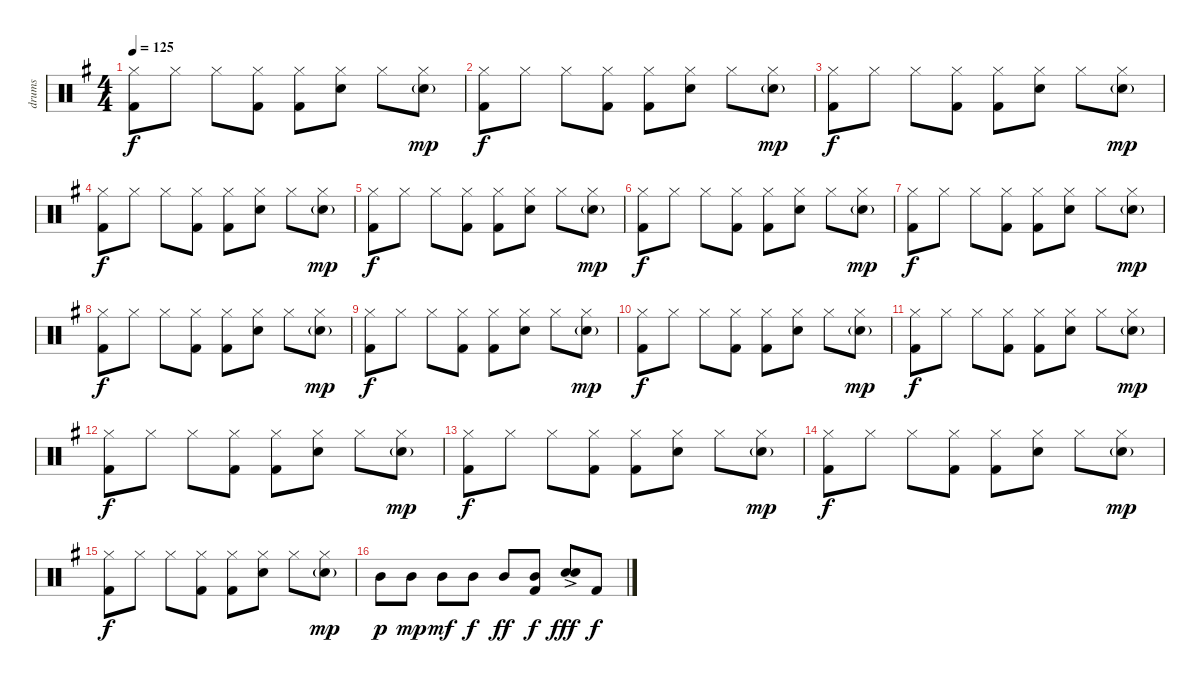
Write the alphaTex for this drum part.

\track ("drums" "drums") {instrument percussion}
\staff {score}
\articulation defaults
\ts (4 4)
\tempo 125
\clef neutral
\ks eminor
("Hi-Hat (closed)" "Kick (hit) 2").8{dy f} "Hi-Hat (closed)".8 "Hi-Hat (closed)".8 ("Hi-Hat (closed)" "Kick (hit) 2").8 ("Hi-Hat (closed)" "Kick (hit) 2").8 ("Hi-Hat (closed)" "Snare (hit) 2").8 "Hi-Hat (closed)".8 ("Hi-Hat (closed)" "Snare (hit) 2"{g}).8{dy mp} |
("Hi-Hat (closed)" "Kick (hit) 2").8{dy f} "Hi-Hat (closed)".8 "Hi-Hat (closed)".8 ("Hi-Hat (closed)" "Kick (hit) 2").8 ("Hi-Hat (closed)" "Kick (hit) 2").8 ("Hi-Hat (closed)" "Snare (hit) 2").8 "Hi-Hat (closed)".8 ("Hi-Hat (closed)" "Snare (hit) 2"{g}).8{dy mp} |
("Hi-Hat (closed)" "Kick (hit) 2").8{dy f} "Hi-Hat (closed)".8 "Hi-Hat (closed)".8 ("Hi-Hat (closed)" "Kick (hit) 2").8 ("Hi-Hat (closed)" "Kick (hit) 2").8 ("Hi-Hat (closed)" "Snare (hit) 2").8 "Hi-Hat (closed)".8 ("Hi-Hat (closed)" "Snare (hit) 2"{g}).8{dy mp} |
("Hi-Hat (closed)" "Kick (hit) 2").8{dy f} "Hi-Hat (closed)".8 "Hi-Hat (closed)".8 ("Hi-Hat (closed)" "Kick (hit) 2").8 ("Hi-Hat (closed)" "Kick (hit) 2").8 ("Hi-Hat (closed)" "Snare (hit) 2").8 "Hi-Hat (closed)".8 ("Hi-Hat (closed)" "Snare (hit) 2"{g}).8{dy mp} |
("Hi-Hat (closed)" "Kick (hit) 2").8{dy f} "Hi-Hat (closed)".8 "Hi-Hat (closed)".8 ("Hi-Hat (closed)" "Kick (hit) 2").8 ("Hi-Hat (closed)" "Kick (hit) 2").8 ("Hi-Hat (closed)" "Snare (hit) 2").8 "Hi-Hat (closed)".8 ("Hi-Hat (closed)" "Snare (hit) 2"{g}).8{dy mp} |
("Hi-Hat (closed)" "Kick (hit) 2").8{dy f} "Hi-Hat (closed)".8 "Hi-Hat (closed)".8 ("Hi-Hat (closed)" "Kick (hit) 2").8 ("Hi-Hat (closed)" "Kick (hit) 2").8 ("Hi-Hat (closed)" "Snare (hit) 2").8 "Hi-Hat (closed)".8 ("Hi-Hat (closed)" "Snare (hit) 2"{g}).8{dy mp} |
("Hi-Hat (closed)" "Kick (hit) 2").8{dy f} "Hi-Hat (closed)".8 "Hi-Hat (closed)".8 ("Hi-Hat (closed)" "Kick (hit) 2").8 ("Hi-Hat (closed)" "Kick (hit) 2").8 ("Hi-Hat (closed)" "Snare (hit) 2").8 "Hi-Hat (closed)".8 ("Hi-Hat (closed)" "Snare (hit) 2"{g}).8{dy mp} |
("Hi-Hat (closed)" "Kick (hit) 2").8{dy f} "Hi-Hat (closed)".8 "Hi-Hat (closed)".8 ("Hi-Hat (closed)" "Kick (hit) 2").8 ("Hi-Hat (closed)" "Kick (hit) 2").8 ("Hi-Hat (closed)" "Snare (hit) 2").8 "Hi-Hat (closed)".8 ("Hi-Hat (closed)" "Snare (hit) 2"{g}).8{dy mp} |
("Hi-Hat (closed)" "Kick (hit) 2").8{dy f} "Hi-Hat (closed)".8 "Hi-Hat (closed)".8 ("Hi-Hat (closed)" "Kick (hit) 2").8 ("Hi-Hat (closed)" "Kick (hit) 2").8 ("Hi-Hat (closed)" "Snare (hit) 2").8 "Hi-Hat (closed)".8 ("Hi-Hat (closed)" "Snare (hit) 2"{g}).8{dy mp} |
("Hi-Hat (closed)" "Kick (hit) 2").8{dy f} "Hi-Hat (closed)".8 "Hi-Hat (closed)".8 ("Hi-Hat (closed)" "Kick (hit) 2").8 ("Hi-Hat (closed)" "Kick (hit) 2").8 ("Hi-Hat (closed)" "Snare (hit) 2").8 "Hi-Hat (closed)".8 ("Hi-Hat (closed)" "Snare (hit) 2"{g}).8{dy mp} |
("Hi-Hat (closed)" "Kick (hit) 2").8{dy f} "Hi-Hat (closed)".8 "Hi-Hat (closed)".8 ("Hi-Hat (closed)" "Kick (hit) 2").8 ("Hi-Hat (closed)" "Kick (hit) 2").8 ("Hi-Hat (closed)" "Snare (hit) 2").8 "Hi-Hat (closed)".8 ("Hi-Hat (closed)" "Snare (hit) 2"{g}).8{dy mp} |
("Hi-Hat (closed)" "Kick (hit) 2").8{dy f} "Hi-Hat (closed)".8 "Hi-Hat (closed)".8 ("Hi-Hat (closed)" "Kick (hit) 2").8 ("Hi-Hat (closed)" "Kick (hit) 2").8 ("Hi-Hat (closed)" "Snare (hit) 2").8 "Hi-Hat (closed)".8 ("Hi-Hat (closed)" "Snare (hit) 2"{g}).8{dy mp} |
("Hi-Hat (closed)" "Kick (hit) 2").8{dy f} "Hi-Hat (closed)".8 "Hi-Hat (closed)".8 ("Hi-Hat (closed)" "Kick (hit) 2").8 ("Hi-Hat (closed)" "Kick (hit) 2").8 ("Hi-Hat (closed)" "Snare (hit) 2").8 "Hi-Hat (closed)".8 ("Hi-Hat (closed)" "Snare (hit) 2"{g}).8{dy mp} |
("Hi-Hat (closed)" "Kick (hit) 2").8{dy f} "Hi-Hat (closed)".8 "Hi-Hat (closed)".8 ("Hi-Hat (closed)" "Kick (hit) 2").8 ("Hi-Hat (closed)" "Kick (hit) 2").8 ("Hi-Hat (closed)" "Snare (hit) 2").8 "Hi-Hat (closed)".8 ("Hi-Hat (closed)" "Snare (hit) 2"{g}).8{dy mp} |
("Hi-Hat (closed)" "Kick (hit) 2").8{dy f} "Hi-Hat (closed)".8 "Hi-Hat (closed)".8 ("Hi-Hat (closed)" "Kick (hit) 2").8 ("Hi-Hat (closed)" "Kick (hit) 2").8 ("Hi-Hat (closed)" "Snare (hit) 2").8 "Hi-Hat (closed)".8 ("Hi-Hat (closed)" "Snare (hit) 2"{g}).8{dy mp} |
"Mid Tom (hit)".8{dy p} "Mid Tom (hit)".8{dy mp} "Mid Tom (hit)".8{dy mf} "Mid Tom (hit)".8{dy f} "Mid Tom (hit)".8{dy ff} ("Mid Tom (hit)" "Kick (hit) 2").8{dy f} ("Electric Snare (hit)"{ac} "Snare (hit) 2").8{dy fff} "Kick (hit) 2".8{dy f}
